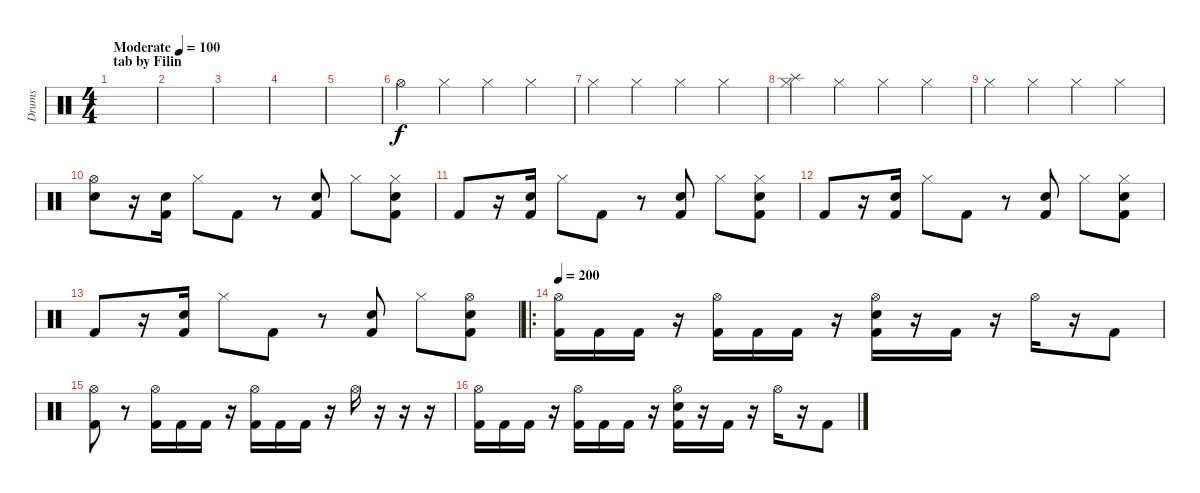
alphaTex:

\track ("Drums" "Drums") {instrument percussion}
\staff {score}
\articulation defaults
\ts (4 4)
\section ("" "tab by Filin")
\tempo (100 "Moderate")
\clef neutral
\ks c
|
|
|
|
|
"Hi-Hat (open)".4 "Hi-Hat (closed)".4 "Hi-Hat (closed)".4 "Hi-Hat (closed)".4 |
"Hi-Hat (closed)".4 "Hi-Hat (closed)".4 "Hi-Hat (closed)".4 "Hi-Hat (closed)".4 |
("Splash (hit)" "Hi-Hat (closed)").4 "Hi-Hat (closed)".4 "Hi-Hat (closed)".4 "Hi-Hat (closed)".4 |
"Hi-Hat (closed)".4 "Hi-Hat (closed)".4 "Hi-Hat (closed)".4 "Hi-Hat (closed)".4 |
("Hi-Hat (open)" "Electric Snare (hit)").8 r.16 ("Electric Snare (hit)" "Kick (hit) 2").16 "Hi-Hat (closed)".8 "Kick (hit) 2".8 r.8 ("Electric Snare (hit)" "Kick (hit) 2").8 "Hi-Hat (closed)".8 ("Hi-Hat (closed)" "Electric Snare (hit)" "Kick (hit) 2").8 |
"Kick (hit) 2".8 r.16 ("Electric Snare (hit)" "Kick (hit) 2").16 "Hi-Hat (closed)".8 "Kick (hit) 2".8 r.8 ("Electric Snare (hit)" "Kick (hit) 2").8 "Hi-Hat (closed)".8 ("Hi-Hat (closed)" "Electric Snare (hit)" "Kick (hit) 2").8 |
"Kick (hit) 2".8 r.16 ("Electric Snare (hit)" "Kick (hit) 2").16 "Hi-Hat (closed)".8 "Kick (hit) 2".8 r.8 ("Electric Snare (hit)" "Kick (hit) 2").8 "Hi-Hat (closed)".8 ("Hi-Hat (closed)" "Electric Snare (hit)" "Kick (hit) 2").8 |
"Kick (hit) 2".8 r.16 ("Electric Snare (hit)" "Kick (hit) 2").16 "Hi-Hat (closed)".8 "Kick (hit) 2".8 r.8 ("Electric Snare (hit)" "Kick (hit) 2").8 "Hi-Hat (closed)".8 ("Hi-Hat (open)" "Electric Snare (hit)" "Kick (hit) 2").8 |
\ro
\tempo 200
("Hi-Hat (open)" "Kick (hit) 2").16 "Kick (hit) 2".16 "Kick (hit) 2".16 r.16 ("Hi-Hat (open)" "Kick (hit) 2").16 "Kick (hit) 2".16 "Kick (hit) 2".16 r.16 ("Hi-Hat (open)" "Electric Snare (hit)" "Kick (hit) 2").16 r.16 "Kick (hit) 2".16 r.16 "Hi-Hat (open)".16 r.16 "Kick (hit) 2".8 |
("Hi-Hat (open)" "Kick (hit) 2").8 r.8 ("Hi-Hat (open)" "Kick (hit) 2").16 "Kick (hit) 2".16 "Kick (hit) 2".16 r.16 ("Hi-Hat (open)" "Kick (hit) 2").16 "Kick (hit) 2".16 "Kick (hit) 2".16 r.16 "Hi-Hat (open)".16 r.16 r.16 r.16 |
("Hi-Hat (open)" "Kick (hit) 2").16 "Kick (hit) 2".16 "Kick (hit) 2".16 r.16 ("Hi-Hat (open)" "Kick (hit) 2").16 "Kick (hit) 2".16 "Kick (hit) 2".16 r.16 ("Hi-Hat (open)" "Electric Snare (hit)" "Kick (hit) 2").16 r.16 "Kick (hit) 2".16 r.16 "Hi-Hat (open)".16 r.16 "Kick (hit) 2".8
